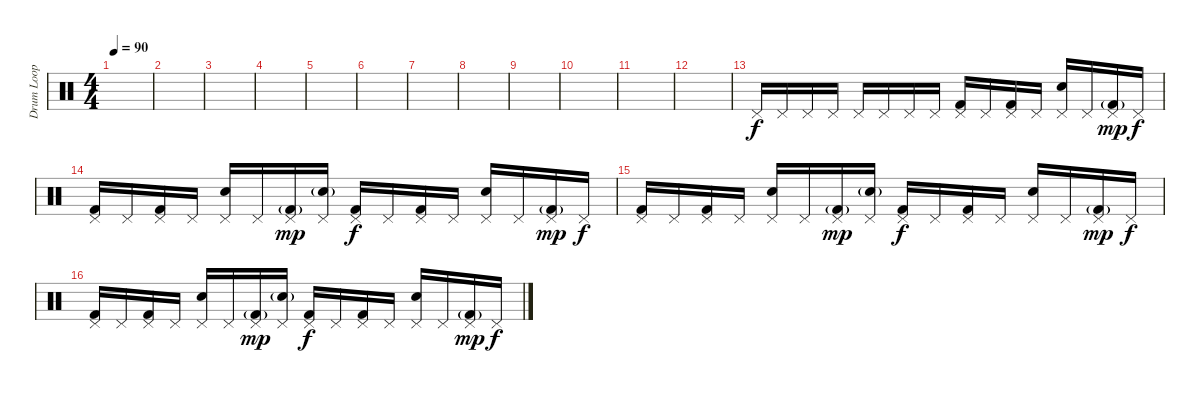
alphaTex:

\track ("Drum Loop" "Drum Loop") {instrument percussion}
\staff {score}
\articulation defaults
\ts (4 4)
\tempo 90
\clef neutral
\ks c
|
|
|
|
|
|
|
|
|
|
|
|
"Pedal Hi-Hat (hit)".16 "Pedal Hi-Hat (hit)".16 "Pedal Hi-Hat (hit)".16 "Pedal Hi-Hat (hit)".16 "Pedal Hi-Hat (hit)".16 "Pedal Hi-Hat (hit)".16 "Pedal Hi-Hat (hit)".16 "Pedal Hi-Hat (hit)".16 ("Pedal Hi-Hat (hit)" "Kick (hit) 2").16 "Pedal Hi-Hat (hit)".16 ("Pedal Hi-Hat (hit)" "Kick (hit) 2").16 "Pedal Hi-Hat (hit)".16 ("Pedal Hi-Hat (hit)" "Snare (hit) 2").16 "Pedal Hi-Hat (hit)".16 ("Pedal Hi-Hat (hit)" "Kick (hit) 2"{g}).16{dy mp} "Pedal Hi-Hat (hit)".16{dy f} |
("Pedal Hi-Hat (hit)" "Kick (hit) 2").16 "Pedal Hi-Hat (hit)".16 ("Pedal Hi-Hat (hit)" "Kick (hit) 2").16 "Pedal Hi-Hat (hit)".16 ("Pedal Hi-Hat (hit)" "Snare (hit) 2").16 "Pedal Hi-Hat (hit)".16 ("Pedal Hi-Hat (hit)" "Kick (hit) 2"{g}).16{dy mp} ("Pedal Hi-Hat (hit)" "Snare (hit) 2"{g}).16 ("Pedal Hi-Hat (hit)" "Kick (hit) 2").16{dy f} "Pedal Hi-Hat (hit)".16 ("Pedal Hi-Hat (hit)" "Kick (hit) 2").16 "Pedal Hi-Hat (hit)".16 ("Pedal Hi-Hat (hit)" "Snare (hit) 2").16 "Pedal Hi-Hat (hit)".16 ("Pedal Hi-Hat (hit)" "Kick (hit) 2"{g}).16{dy mp} "Pedal Hi-Hat (hit)".16{dy f} |
("Pedal Hi-Hat (hit)" "Kick (hit) 2").16 "Pedal Hi-Hat (hit)".16 ("Pedal Hi-Hat (hit)" "Kick (hit) 2").16 "Pedal Hi-Hat (hit)".16 ("Pedal Hi-Hat (hit)" "Snare (hit) 2").16 "Pedal Hi-Hat (hit)".16 ("Pedal Hi-Hat (hit)" "Kick (hit) 2"{g}).16{dy mp} ("Pedal Hi-Hat (hit)" "Snare (hit) 2"{g}).16 ("Pedal Hi-Hat (hit)" "Kick (hit) 2").16{dy f} "Pedal Hi-Hat (hit)".16 ("Pedal Hi-Hat (hit)" "Kick (hit) 2").16 "Pedal Hi-Hat (hit)".16 ("Pedal Hi-Hat (hit)" "Snare (hit) 2").16 "Pedal Hi-Hat (hit)".16 ("Pedal Hi-Hat (hit)" "Kick (hit) 2"{g}).16{dy mp} "Pedal Hi-Hat (hit)".16{dy f} |
("Pedal Hi-Hat (hit)" "Kick (hit) 2").16 "Pedal Hi-Hat (hit)".16 ("Pedal Hi-Hat (hit)" "Kick (hit) 2").16 "Pedal Hi-Hat (hit)".16 ("Pedal Hi-Hat (hit)" "Snare (hit) 2").16 "Pedal Hi-Hat (hit)".16 ("Pedal Hi-Hat (hit)" "Kick (hit) 2"{g}).16{dy mp} ("Pedal Hi-Hat (hit)" "Snare (hit) 2"{g}).16 ("Pedal Hi-Hat (hit)" "Kick (hit) 2").16{dy f} "Pedal Hi-Hat (hit)".16 ("Pedal Hi-Hat (hit)" "Kick (hit) 2").16 "Pedal Hi-Hat (hit)".16 ("Pedal Hi-Hat (hit)" "Snare (hit) 2").16 "Pedal Hi-Hat (hit)".16 ("Pedal Hi-Hat (hit)" "Kick (hit) 2"{g}).16{dy mp} "Pedal Hi-Hat (hit)".16{dy f}
